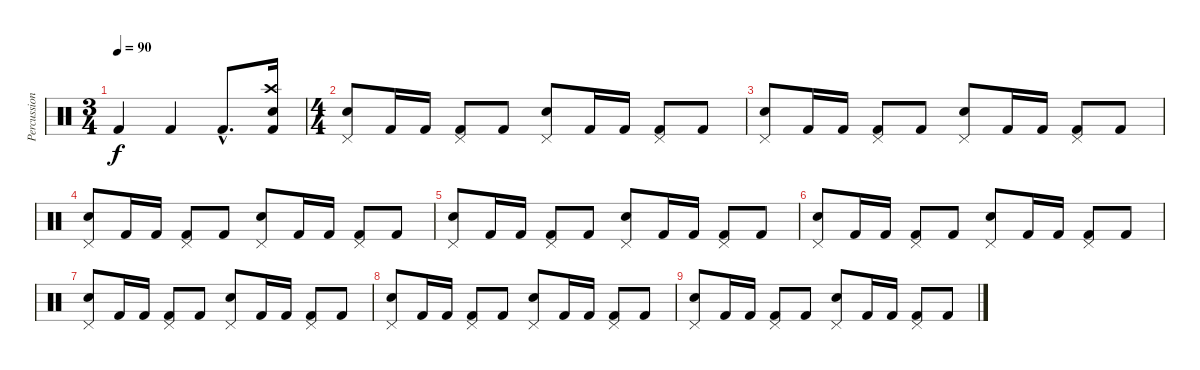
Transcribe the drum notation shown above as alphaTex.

\track ("Percussions" "Percussion") {instrument percussion}
\staff {score}
\articulation defaults
\ts (3 4)
\tempo 90
\clef neutral
\ks c "Kick (hit) 2".4{dy f} "Kick (hit) 2".4 "Kick (hit) 2"{hac}.8{d}
("Crash high (hit)" "Electric Snare (hit)" "Kick (hit) 2").16 |
\ts (4 4)
("Pedal Hi-Hat (hit)" "Electric Snare (hit)").8 "Kick (hit) 2".16 "Kick (hit) 2".16 ("Pedal Hi-Hat (hit)" "Kick (hit) 2").8 "Kick (hit) 2".8 ("Pedal Hi-Hat (hit)" "Electric Snare (hit)").8 "Kick (hit) 2".16 "Kick (hit) 2".16 ("Pedal Hi-Hat (hit)" "Kick (hit) 2").8 "Kick (hit) 2".8 |
("Pedal Hi-Hat (hit)" "Electric Snare (hit)").8 "Kick (hit) 2".16 "Kick (hit) 2".16 ("Pedal Hi-Hat (hit)" "Kick (hit) 2").8 "Kick (hit) 2".8 ("Pedal Hi-Hat (hit)" "Electric Snare (hit)").8 "Kick (hit) 2".16 "Kick (hit) 2".16 ("Pedal Hi-Hat (hit)" "Kick (hit) 2").8 "Kick (hit) 2".8 |
("Pedal Hi-Hat (hit)" "Electric Snare (hit)").8 "Kick (hit) 2".16 "Kick (hit) 2".16 ("Pedal Hi-Hat (hit)" "Kick (hit) 2").8 "Kick (hit) 2".8 ("Pedal Hi-Hat (hit)" "Electric Snare (hit)").8 "Kick (hit) 2".16 "Kick (hit) 2".16 ("Pedal Hi-Hat (hit)" "Kick (hit) 2").8 "Kick (hit) 2".8 |
("Pedal Hi-Hat (hit)" "Electric Snare (hit)").8 "Kick (hit) 2".16 "Kick (hit) 2".16 ("Pedal Hi-Hat (hit)" "Kick (hit) 2").8 "Kick (hit) 2".8 ("Pedal Hi-Hat (hit)" "Electric Snare (hit)").8 "Kick (hit) 2".16 "Kick (hit) 2".16 ("Pedal Hi-Hat (hit)" "Kick (hit) 2").8 "Kick (hit) 2".8 |
("Pedal Hi-Hat (hit)" "Electric Snare (hit)").8 "Kick (hit) 2".16 "Kick (hit) 2".16 ("Pedal Hi-Hat (hit)" "Kick (hit) 2").8 "Kick (hit) 2".8 ("Pedal Hi-Hat (hit)" "Electric Snare (hit)").8 "Kick (hit) 2".16 "Kick (hit) 2".16 ("Pedal Hi-Hat (hit)" "Kick (hit) 2").8 "Kick (hit) 2".8 |
("Pedal Hi-Hat (hit)" "Electric Snare (hit)").8 "Kick (hit) 2".16 "Kick (hit) 2".16 ("Pedal Hi-Hat (hit)" "Kick (hit) 2").8 "Kick (hit) 2".8 ("Pedal Hi-Hat (hit)" "Electric Snare (hit)").8 "Kick (hit) 2".16 "Kick (hit) 2".16 ("Pedal Hi-Hat (hit)" "Kick (hit) 2").8 "Kick (hit) 2".8 |
("Pedal Hi-Hat (hit)" "Electric Snare (hit)").8 "Kick (hit) 2".16 "Kick (hit) 2".16 ("Pedal Hi-Hat (hit)" "Kick (hit) 2").8 "Kick (hit) 2".8 ("Pedal Hi-Hat (hit)" "Electric Snare (hit)").8 "Kick (hit) 2".16 "Kick (hit) 2".16 ("Pedal Hi-Hat (hit)" "Kick (hit) 2").8 "Kick (hit) 2".8 |
("Pedal Hi-Hat (hit)" "Electric Snare (hit)").8 "Kick (hit) 2".16 "Kick (hit) 2".16 ("Pedal Hi-Hat (hit)" "Kick (hit) 2").8 "Kick (hit) 2".8 ("Pedal Hi-Hat (hit)" "Electric Snare (hit)").8 "Kick (hit) 2".16 "Kick (hit) 2".16 ("Pedal Hi-Hat (hit)" "Kick (hit) 2").8 "Kick (hit) 2".8
